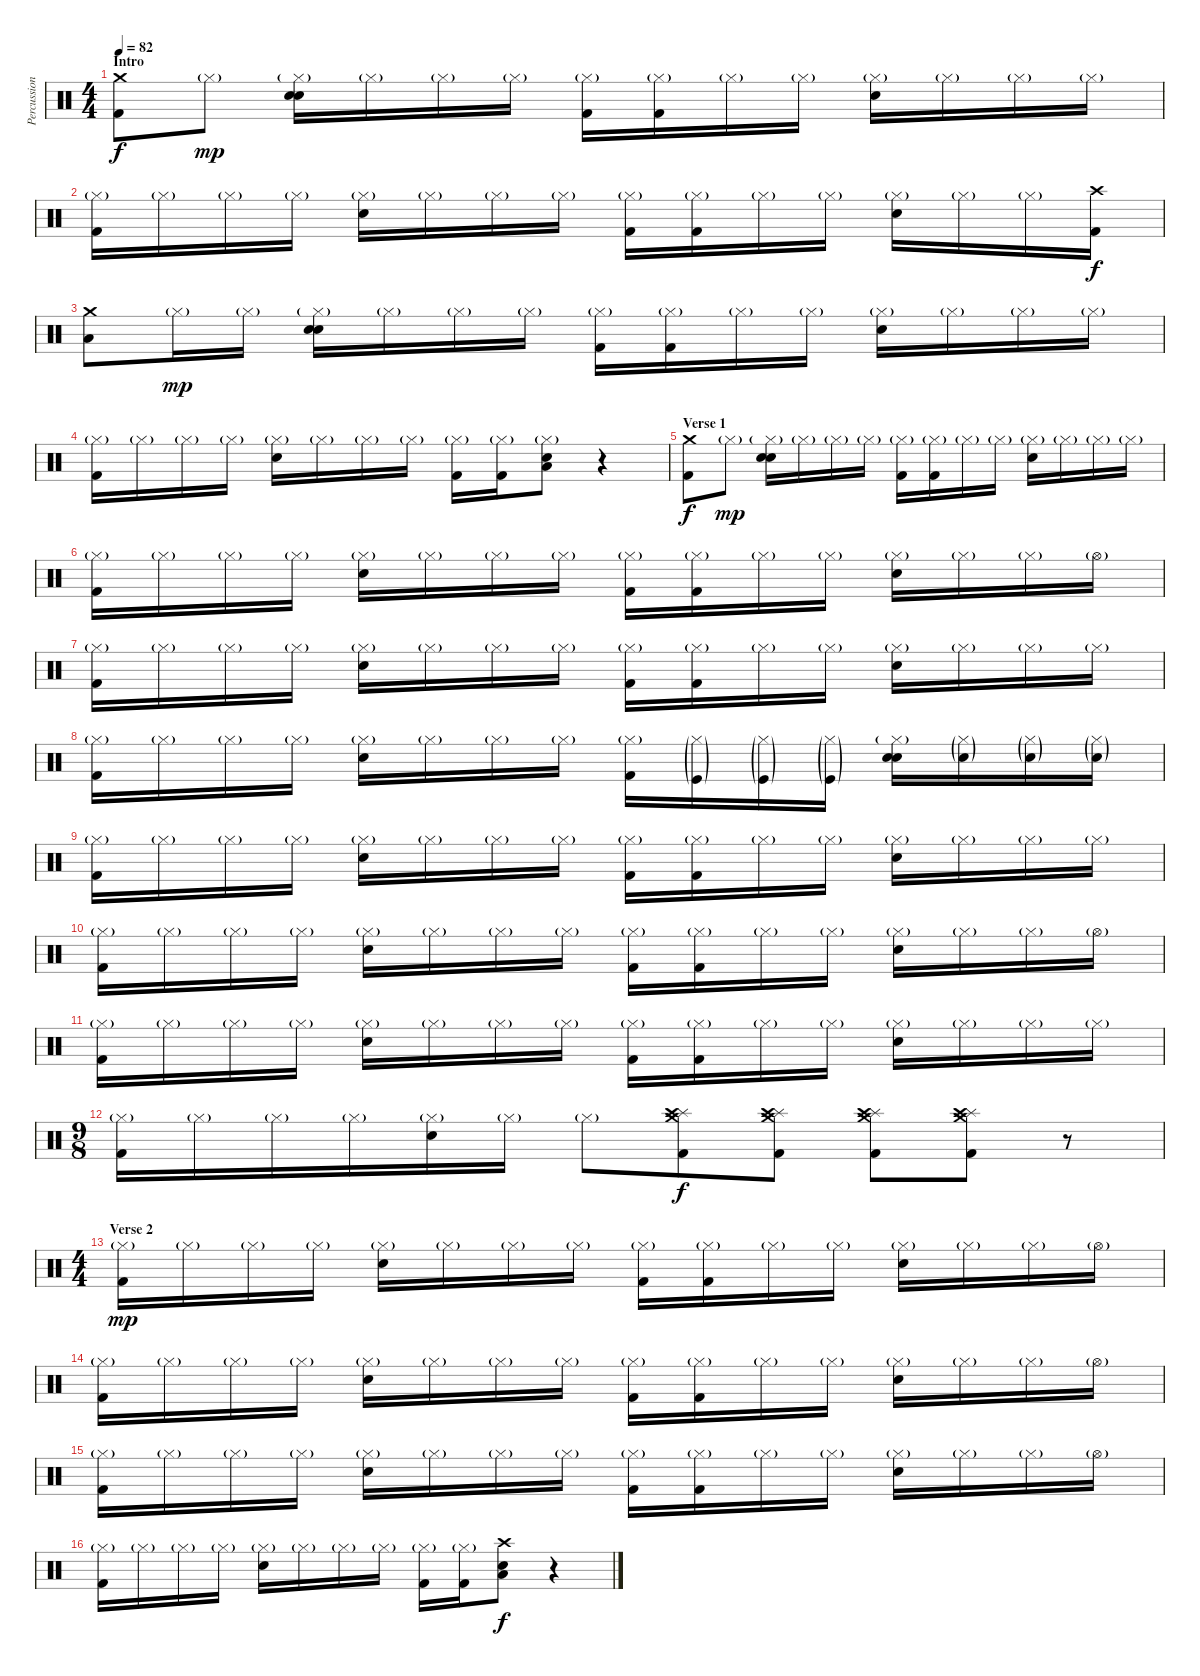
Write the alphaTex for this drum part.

\track ("Percussion" "Percussion") {instrument percussion}
\staff {score}
\articulation defaults
\ts (4 4)
\section ("" "Intro")
\tempo 82
\clef neutral
\ks c
("Crash medium (hit)" "Kick (hit) 2").8{dy f} "Hi-Hat (closed)"{g}.8{dy mp} ("Hi-Hat (closed)"{g} "Electric Snare (hit)" "Snare (hit) 2").16 "Hi-Hat (closed)"{g}.16 "Hi-Hat (closed)"{g}.16 "Hi-Hat (closed)"{g}.16 ("Hi-Hat (closed)"{g} "Kick (hit) 2").16 ("Hi-Hat (closed)"{g} "Kick (hit) 2").16 "Hi-Hat (closed)"{g}.16 "Hi-Hat (closed)"{g}.16 ("Hi-Hat (closed)"{g} "Snare (hit) 2").16 "Hi-Hat (closed)"{g}.16 "Hi-Hat (closed)"{g}.16 "Hi-Hat (closed)"{g}.16 |
("Hi-Hat (closed)"{g} "Kick (hit) 2").16 "Hi-Hat (closed)"{g}.16 "Hi-Hat (closed)"{g}.16 "Hi-Hat (closed)"{g}.16 ("Hi-Hat (closed)"{g} "Snare (hit) 2").16 "Hi-Hat (closed)"{g}.16 "Hi-Hat (closed)"{g}.16 "Hi-Hat (closed)"{g}.16 ("Hi-Hat (closed)"{g} "Kick (hit) 2").16 ("Hi-Hat (closed)"{g} "Kick (hit) 2").16 "Hi-Hat (closed)"{g}.16 "Hi-Hat (closed)"{g}.16 ("Hi-Hat (closed)"{g} "Snare (hit) 2").16 "Hi-Hat (closed)"{g}.16 "Hi-Hat (closed)"{g}.16 ("Crash high (hit)" "Kick (hit) 2").16{dy f} |
("Crash medium (hit)" "Low Floor Tom (hit)").8 "Hi-Hat (closed)"{g}.16{dy mp} "Hi-Hat (closed)"{g}.16 ("Hi-Hat (closed)"{g} "Electric Snare (hit)" "Snare (hit) 2").16 "Hi-Hat (closed)"{g}.16 "Hi-Hat (closed)"{g}.16 "Hi-Hat (closed)"{g}.16 ("Hi-Hat (closed)"{g} "Kick (hit) 2").16 ("Hi-Hat (closed)"{g} "Kick (hit) 2").16 "Hi-Hat (closed)"{g}.16 "Hi-Hat (closed)"{g}.16 ("Hi-Hat (closed)"{g} "Snare (hit) 2").16 "Hi-Hat (closed)"{g}.16 "Hi-Hat (closed)"{g}.16 "Hi-Hat (closed)"{g}.16 |
("Hi-Hat (closed)"{g} "Kick (hit) 2").16 "Hi-Hat (closed)"{g}.16 "Hi-Hat (closed)"{g}.16 "Hi-Hat (closed)"{g}.16 ("Hi-Hat (closed)"{g} "Snare (hit) 2").16 "Hi-Hat (closed)"{g}.16 "Hi-Hat (closed)"{g}.16 "Hi-Hat (closed)"{g}.16 ("Hi-Hat (closed)"{g} "Kick (hit) 2").16 ("Hi-Hat (closed)"{g} "Kick (hit) 2").16 ("Hi-Hat (closed)"{g} "Low Tom (hit)" "Snare (hit) 2").8 r.4 |
\section ("" "Verse 1")
("Crash medium (hit)" "Kick (hit) 2").8{dy f} "Hi-Hat (closed)"{g}.8{dy mp} ("Hi-Hat (closed)"{g} "Electric Snare (hit)" "Snare (hit) 2").16 "Hi-Hat (closed)"{g}.16 "Hi-Hat (closed)"{g}.16 "Hi-Hat (closed)"{g}.16 ("Hi-Hat (closed)"{g} "Kick (hit) 2").16 ("Hi-Hat (closed)"{g} "Kick (hit) 2").16 "Hi-Hat (closed)"{g}.16 "Hi-Hat (closed)"{g}.16 ("Hi-Hat (closed)"{g} "Snare (hit) 2").16 "Hi-Hat (closed)"{g}.16 "Hi-Hat (closed)"{g}.16 "Hi-Hat (closed)"{g}.16 |
("Hi-Hat (closed)"{g} "Kick (hit) 2").16 "Hi-Hat (closed)"{g}.16 "Hi-Hat (closed)"{g}.16 "Hi-Hat (closed)"{g}.16 ("Hi-Hat (closed)"{g} "Snare (hit) 2").16 "Hi-Hat (closed)"{g}.16 "Hi-Hat (closed)"{g}.16 "Hi-Hat (closed)"{g}.16 ("Hi-Hat (closed)"{g} "Kick (hit) 2").16 ("Hi-Hat (closed)"{g} "Kick (hit) 2").16 "Hi-Hat (closed)"{g}.16 "Hi-Hat (closed)"{g}.16 ("Hi-Hat (closed)"{g} "Snare (hit) 2").16 "Hi-Hat (closed)"{g}.16 "Hi-Hat (closed)"{g}.16 "Hi-Hat (open)"{g}.16 |
("Hi-Hat (closed)"{g} "Kick (hit) 2").16 "Hi-Hat (closed)"{g}.16 "Hi-Hat (closed)"{g}.16 "Hi-Hat (closed)"{g}.16 ("Hi-Hat (closed)"{g} "Snare (hit) 2").16 "Hi-Hat (closed)"{g}.16 "Hi-Hat (closed)"{g}.16 "Hi-Hat (closed)"{g}.16 ("Hi-Hat (closed)"{g} "Kick (hit) 2").16 ("Hi-Hat (closed)"{g} "Kick (hit) 2").16 "Hi-Hat (closed)"{g}.16 "Hi-Hat (closed)"{g}.16 ("Hi-Hat (closed)"{g} "Snare (hit) 2").16 "Hi-Hat (closed)"{g}.16 "Hi-Hat (closed)"{g}.16 "Hi-Hat (closed)"{g}.16 |
("Hi-Hat (closed)"{g} "Kick (hit) 2").16 "Hi-Hat (closed)"{g}.16 "Hi-Hat (closed)"{g}.16 "Hi-Hat (closed)"{g}.16 ("Hi-Hat (closed)"{g} "Snare (hit) 2").16 "Hi-Hat (closed)"{g}.16 "Hi-Hat (closed)"{g}.16 "Hi-Hat (closed)"{g}.16 ("Hi-Hat (closed)"{g} "Kick (hit) 2").16 ("Hi-Hat (closed)"{g} "Kick (hit)"{g}).16 ("Hi-Hat (closed)"{g} "Kick (hit)"{g}).16 ("Hi-Hat (closed)"{g} "Kick (hit)"{g}).16 ("Hi-Hat (closed)"{g} "Electric Snare (hit)" "Snare (hit) 2").16 ("Hi-Hat (closed)"{g} "Snare (hit) 2"{g}).16 ("Hi-Hat (closed)"{g} "Snare (hit) 2"{g}).16 ("Hi-Hat (closed)"{g} "Snare (hit) 2"{g}).16 |
("Hi-Hat (closed)"{g} "Kick (hit) 2").16 "Hi-Hat (closed)"{g}.16 "Hi-Hat (closed)"{g}.16 "Hi-Hat (closed)"{g}.16 ("Hi-Hat (closed)"{g} "Snare (hit) 2").16 "Hi-Hat (closed)"{g}.16 "Hi-Hat (closed)"{g}.16 "Hi-Hat (closed)"{g}.16 ("Hi-Hat (closed)"{g} "Kick (hit) 2").16 ("Hi-Hat (closed)"{g} "Kick (hit) 2").16 "Hi-Hat (closed)"{g}.16 "Hi-Hat (closed)"{g}.16 ("Hi-Hat (closed)"{g} "Snare (hit) 2").16 "Hi-Hat (closed)"{g}.16 "Hi-Hat (closed)"{g}.16 "Hi-Hat (closed)"{g}.16 |
("Hi-Hat (closed)"{g} "Kick (hit) 2").16 "Hi-Hat (closed)"{g}.16 "Hi-Hat (closed)"{g}.16 "Hi-Hat (closed)"{g}.16 ("Hi-Hat (closed)"{g} "Snare (hit) 2").16 "Hi-Hat (closed)"{g}.16 "Hi-Hat (closed)"{g}.16 "Hi-Hat (closed)"{g}.16 ("Hi-Hat (closed)"{g} "Kick (hit) 2").16 ("Hi-Hat (closed)"{g} "Kick (hit) 2").16 "Hi-Hat (closed)"{g}.16 "Hi-Hat (closed)"{g}.16 ("Hi-Hat (closed)"{g} "Snare (hit) 2").16 "Hi-Hat (closed)"{g}.16 "Hi-Hat (closed)"{g}.16 "Hi-Hat (open)"{g}.16 |
("Hi-Hat (closed)"{g} "Kick (hit) 2").16 "Hi-Hat (closed)"{g}.16 "Hi-Hat (closed)"{g}.16 "Hi-Hat (closed)"{g}.16 ("Hi-Hat (closed)"{g} "Snare (hit) 2").16 "Hi-Hat (closed)"{g}.16 "Hi-Hat (closed)"{g}.16 "Hi-Hat (closed)"{g}.16 ("Hi-Hat (closed)"{g} "Kick (hit) 2").16 ("Hi-Hat (closed)"{g} "Kick (hit) 2").16 "Hi-Hat (closed)"{g}.16 "Hi-Hat (closed)"{g}.16 ("Hi-Hat (closed)"{g} "Snare (hit) 2").16 "Hi-Hat (closed)"{g}.16 "Hi-Hat (closed)"{g}.16 "Hi-Hat (closed)"{g}.16 |
\ts (9 8)
("Hi-Hat (closed)"{g} "Kick (hit) 2").16 "Hi-Hat (closed)"{g}.16 "Hi-Hat (closed)"{g}.16 "Hi-Hat (closed)"{g}.16 ("Hi-Hat (closed)"{g} "Snare (hit) 2").16 "Hi-Hat (closed)"{g}.16 "Hi-Hat (closed)"{g}.8 ("Crash medium (hit)" "Splash (hit)" "Crash high (hit)" "Kick (hit) 2").8{dy f} ("Crash medium (hit)" "Splash (hit)" "Crash high (hit)" "Kick (hit) 2").8 ("Crash medium (hit)" "Splash (hit)" "Crash high (hit)" "Kick (hit) 2").8 ("Crash medium (hit)" "Splash (hit)" "Crash high (hit)" "Kick (hit) 2").8 r.8 |
\ts (4 4)
\section ("" "Verse 2")
("Hi-Hat (closed)"{g} "Kick (hit) 2").16{dy mp} "Hi-Hat (closed)"{g}.16 "Hi-Hat (closed)"{g}.16 "Hi-Hat (closed)"{g}.16 ("Hi-Hat (closed)"{g} "Snare (hit) 2").16 "Hi-Hat (closed)"{g}.16 "Hi-Hat (closed)"{g}.16 "Hi-Hat (closed)"{g}.16 ("Hi-Hat (closed)"{g} "Kick (hit) 2").16 ("Hi-Hat (closed)"{g} "Kick (hit) 2").16 "Hi-Hat (closed)"{g}.16 "Hi-Hat (closed)"{g}.16 ("Hi-Hat (closed)"{g} "Snare (hit) 2").16 "Hi-Hat (closed)"{g}.16 "Hi-Hat (closed)"{g}.16 "Hi-Hat (open)"{g}.16 |
("Hi-Hat (closed)"{g} "Kick (hit) 2").16 "Hi-Hat (closed)"{g}.16 "Hi-Hat (closed)"{g}.16 "Hi-Hat (closed)"{g}.16 ("Hi-Hat (closed)"{g} "Snare (hit) 2").16 "Hi-Hat (closed)"{g}.16 "Hi-Hat (closed)"{g}.16 "Hi-Hat (closed)"{g}.16 ("Hi-Hat (closed)"{g} "Kick (hit) 2").16 ("Hi-Hat (closed)"{g} "Kick (hit) 2").16 "Hi-Hat (closed)"{g}.16 "Hi-Hat (closed)"{g}.16 ("Hi-Hat (closed)"{g} "Snare (hit) 2").16 "Hi-Hat (closed)"{g}.16 "Hi-Hat (closed)"{g}.16 "Hi-Hat (open)"{g}.16 |
("Hi-Hat (closed)"{g} "Kick (hit) 2").16 "Hi-Hat (closed)"{g}.16 "Hi-Hat (closed)"{g}.16 "Hi-Hat (closed)"{g}.16 ("Hi-Hat (closed)"{g} "Snare (hit) 2").16 "Hi-Hat (closed)"{g}.16 "Hi-Hat (closed)"{g}.16 "Hi-Hat (closed)"{g}.16 ("Hi-Hat (closed)"{g} "Kick (hit) 2").16 ("Hi-Hat (closed)"{g} "Kick (hit) 2").16 "Hi-Hat (closed)"{g}.16 "Hi-Hat (closed)"{g}.16 ("Hi-Hat (closed)"{g} "Snare (hit) 2").16 "Hi-Hat (closed)"{g}.16 "Hi-Hat (closed)"{g}.16 "Hi-Hat (open)"{g}.16 |
("Hi-Hat (closed)"{g} "Kick (hit) 2").16 "Hi-Hat (closed)"{g}.16 "Hi-Hat (closed)"{g}.16 "Hi-Hat (closed)"{g}.16 ("Hi-Hat (closed)"{g} "Snare (hit) 2").16 "Hi-Hat (closed)"{g}.16 "Hi-Hat (closed)"{g}.16 "Hi-Hat (closed)"{g}.16 ("Hi-Hat (closed)"{g} "Kick (hit) 2").16 ("Hi-Hat (closed)"{g} "Kick (hit) 2").16 ("Crash high (hit)" "Low Tom (hit)" "Snare (hit) 2").8{dy f} r.4
